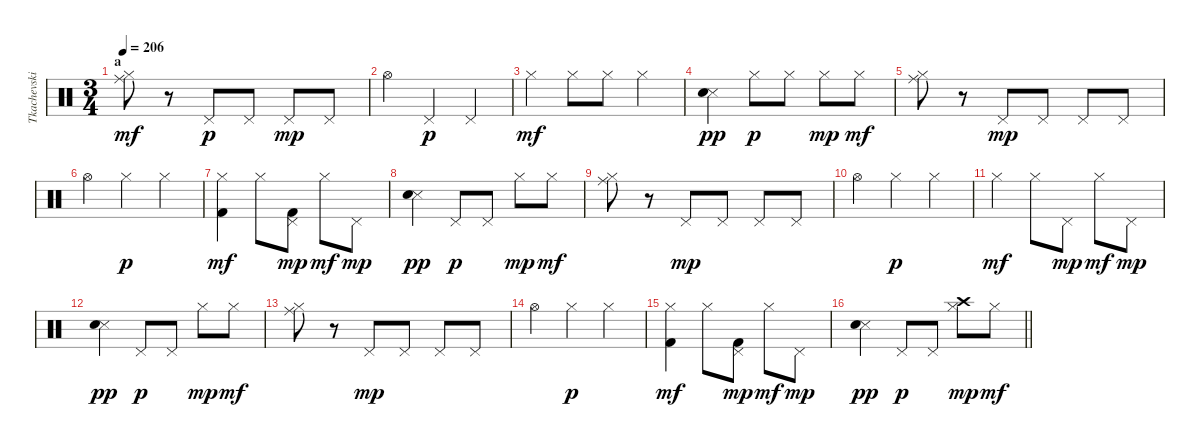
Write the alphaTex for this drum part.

\track ("Tkachevskiy A" "Tkachevski") {instrument percussion}
\staff {score}
\articulation defaults
\ts (3 4)
\section ("" "a")
\tempo 206
\clef neutral
\ks c
("Hi-Hat (closed)" "Ride (middle)").8{dy mf} r.8 "Pedal Hi-Hat (hit)".8{dy p} "Pedal Hi-Hat (hit)".8 "Pedal Hi-Hat (hit)".8{dy mp} "Pedal Hi-Hat (hit)".8 |
"Hi-Hat (open)".4 "Pedal Hi-Hat (hit)".4{dy p} "Pedal Hi-Hat (hit)".4 |
"Hi-Hat (closed)".4{dy mf} "Hi-Hat (closed)".8 "Hi-Hat (closed)".8 "Hi-Hat (closed)".4 |
("Snare (side stick) 3" "Snare (hit) 2").4{dy pp} "Hi-Hat (closed)".8{dy p} "Hi-Hat (closed)".8 "Hi-Hat (closed)".8{dy mp} "Hi-Hat (closed)".8{dy mf} |
("Hi-Hat (closed)" "Ride (middle)").8 r.8 "Pedal Hi-Hat (hit)".8{dy mp} "Pedal Hi-Hat (hit)".8 "Pedal Hi-Hat (hit)".8 "Pedal Hi-Hat (hit)".8 |
"Hi-Hat (open)".4 "Hi-Hat (closed)".4{dy p} "Hi-Hat (closed)".4 |
("Hi-Hat (closed)" "Kick (hit) 2").4{dy mf} "Hi-Hat (closed)".8 ("Pedal Hi-Hat (hit)" "Kick (hit) 2").8{dy mp} "Hi-Hat (closed)".8{dy mf} "Pedal Hi-Hat (hit)".8{dy mp} |
("Snare (side stick) 3" "Snare (hit) 2").4{dy pp} "Pedal Hi-Hat (hit)".8{dy p} "Pedal Hi-Hat (hit)".8 "Hi-Hat (closed)".8{dy mp} "Hi-Hat (closed)".8{dy mf} |
("Hi-Hat (closed)" "Ride (middle)").8 r.8 "Pedal Hi-Hat (hit)".8{dy mp} "Pedal Hi-Hat (hit)".8 "Pedal Hi-Hat (hit)".8 "Pedal Hi-Hat (hit)".8 |
"Hi-Hat (open)".4 "Hi-Hat (closed)".4{dy p} "Hi-Hat (closed)".4 |
"Hi-Hat (closed)".4{dy mf} "Hi-Hat (closed)".8 "Pedal Hi-Hat (hit)".8{dy mp} "Hi-Hat (closed)".8{dy mf} "Pedal Hi-Hat (hit)".8{dy mp} |
("Snare (side stick) 3" "Snare (hit) 2").4{dy pp} "Pedal Hi-Hat (hit)".8{dy p} "Pedal Hi-Hat (hit)".8 "Hi-Hat (closed)".8{dy mp} "Hi-Hat (closed)".8{dy mf} |
("Hi-Hat (closed)" "Ride (middle)").8 r.8 "Pedal Hi-Hat (hit)".8{dy mp} "Pedal Hi-Hat (hit)".8 "Pedal Hi-Hat (hit)".8 "Pedal Hi-Hat (hit)".8 |
"Hi-Hat (open)".4 "Hi-Hat (closed)".4{dy p} "Hi-Hat (closed)".4 |
("Hi-Hat (closed)" "Kick (hit) 2").4{dy mf} "Hi-Hat (closed)".8 ("Pedal Hi-Hat (hit)" "Kick (hit) 2").8{dy mp} "Hi-Hat (closed)".8{dy mf} "Pedal Hi-Hat (hit)".8{dy mp} |
\barLineRight lightlight
("Snare (side stick) 3" "Snare (hit) 2").4{dy pp} "Pedal Hi-Hat (hit)".8{dy p} "Pedal Hi-Hat (hit)".8 ("Hi-Hat (closed)" "Crash high (hit)").8{dy mp} "Hi-Hat (closed)".8{dy mf}
